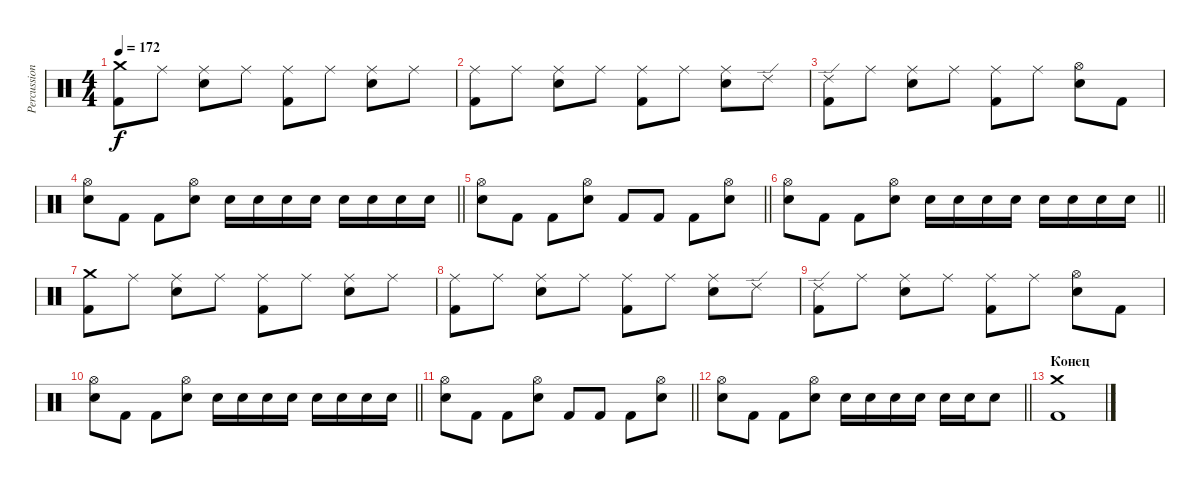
\track ("Percussion" "Percussion") {instrument percussion}
\staff {score}
\articulation defaults
\ts (4 4)
\tempo 172
\clef neutral
\ks c
("Crash medium (hit)" "Kick (hit) 2").8{dy f} "Ride (middle)".8 ("Ride (middle)" "Snare (hit) 2").8 "Ride (middle)".8 ("Ride (middle)" "Kick (hit) 2").8 "Ride (middle)".8 ("Ride (middle)" "Snare (hit) 2").8 "Ride (middle)".8 |
("Ride (middle)" "Kick (hit) 2").8 "Ride (middle)".8 ("Ride (middle)" "Snare (hit) 2").8 "Ride (middle)".8 ("Ride (middle)" "Kick (hit) 2").8 "Ride (middle)".8 ("Ride (middle)" "Snare (hit) 2").8 "Ride (edge) 2".8 |
("Ride (edge) 2" "Kick (hit) 2").8 "Ride (middle)".8 ("Ride (middle)" "Snare (hit) 2").8 "Ride (middle)".8 ("Ride (middle)" "Kick (hit) 2").8 "Ride (middle)".8 ("Snare (hit) 2" "Hi-Hat (open)").8 "Kick (hit) 2".8 |
\barLineRight lightlight
("Snare (hit) 2" "Hi-Hat (open)").8 "Kick (hit) 2".8 "Kick (hit) 2".8 ("Snare (hit) 2" "Hi-Hat (open)").8 "Snare (hit) 2".16 "Snare (hit) 2".16 "Snare (hit) 2".16 "Snare (hit) 2".16 "Snare (hit) 2".16 "Snare (hit) 2".16 "Snare (hit) 2".16 "Snare (hit) 2".16 |
\barLineRight lightlight
("Snare (hit) 2" "Hi-Hat (open)").8 "Kick (hit) 2".8 "Kick (hit) 2".8 ("Snare (hit) 2" "Hi-Hat (open)").8 "Kick (hit) 2".8 "Kick (hit) 2".8 "Kick (hit) 2".8 ("Snare (hit) 2" "Hi-Hat (open)").8 |
\barLineRight lightlight
("Snare (hit) 2" "Hi-Hat (open)").8 "Kick (hit) 2".8 "Kick (hit) 2".8 ("Snare (hit) 2" "Hi-Hat (open)").8 "Snare (hit) 2".16 "Snare (hit) 2".16 "Snare (hit) 2".16 "Snare (hit) 2".16 "Snare (hit) 2".16 "Snare (hit) 2".16 "Snare (hit) 2".16 "Snare (hit) 2".16 |
("Crash medium (hit)" "Kick (hit) 2").8 "Ride (middle)".8 ("Ride (middle)" "Snare (hit) 2").8 "Ride (middle)".8 ("Ride (middle)" "Kick (hit) 2").8 "Ride (middle)".8 ("Ride (middle)" "Snare (hit) 2").8 "Ride (middle)".8 |
("Ride (middle)" "Kick (hit) 2").8 "Ride (middle)".8 ("Ride (middle)" "Snare (hit) 2").8 "Ride (middle)".8 ("Ride (middle)" "Kick (hit) 2").8 "Ride (middle)".8 ("Ride (middle)" "Snare (hit) 2").8 "Ride (edge) 2".8 |
("Ride (edge) 2" "Kick (hit) 2").8 "Ride (middle)".8 ("Ride (middle)" "Snare (hit) 2").8 "Ride (middle)".8 ("Ride (middle)" "Kick (hit) 2").8 "Ride (middle)".8 ("Snare (hit) 2" "Hi-Hat (open)").8 "Kick (hit) 2".8 |
\barLineRight lightlight
("Snare (hit) 2" "Hi-Hat (open)").8 "Kick (hit) 2".8 "Kick (hit) 2".8 ("Snare (hit) 2" "Hi-Hat (open)").8 "Snare (hit) 2".16 "Snare (hit) 2".16 "Snare (hit) 2".16 "Snare (hit) 2".16 "Snare (hit) 2".16 "Snare (hit) 2".16 "Snare (hit) 2".16 "Snare (hit) 2".16 |
\barLineRight lightlight
("Snare (hit) 2" "Hi-Hat (open)").8 "Kick (hit) 2".8 "Kick (hit) 2".8 ("Snare (hit) 2" "Hi-Hat (open)").8 "Kick (hit) 2".8 "Kick (hit) 2".8 "Kick (hit) 2".8 ("Snare (hit) 2" "Hi-Hat (open)").8 |
\barLineRight lightlight
("Snare (hit) 2" "Hi-Hat (open)").8 "Kick (hit) 2".8 "Kick (hit) 2".8 ("Snare (hit) 2" "Hi-Hat (open)").8 "Snare (hit) 2".16 "Snare (hit) 2".16 "Snare (hit) 2".16 "Snare (hit) 2".16 "Snare (hit) 2".16 "Snare (hit) 2".16 "Snare (hit) 2".8 |
\section ("" "Конец")
("Crash medium (hit)" "Kick (hit) 2").1
